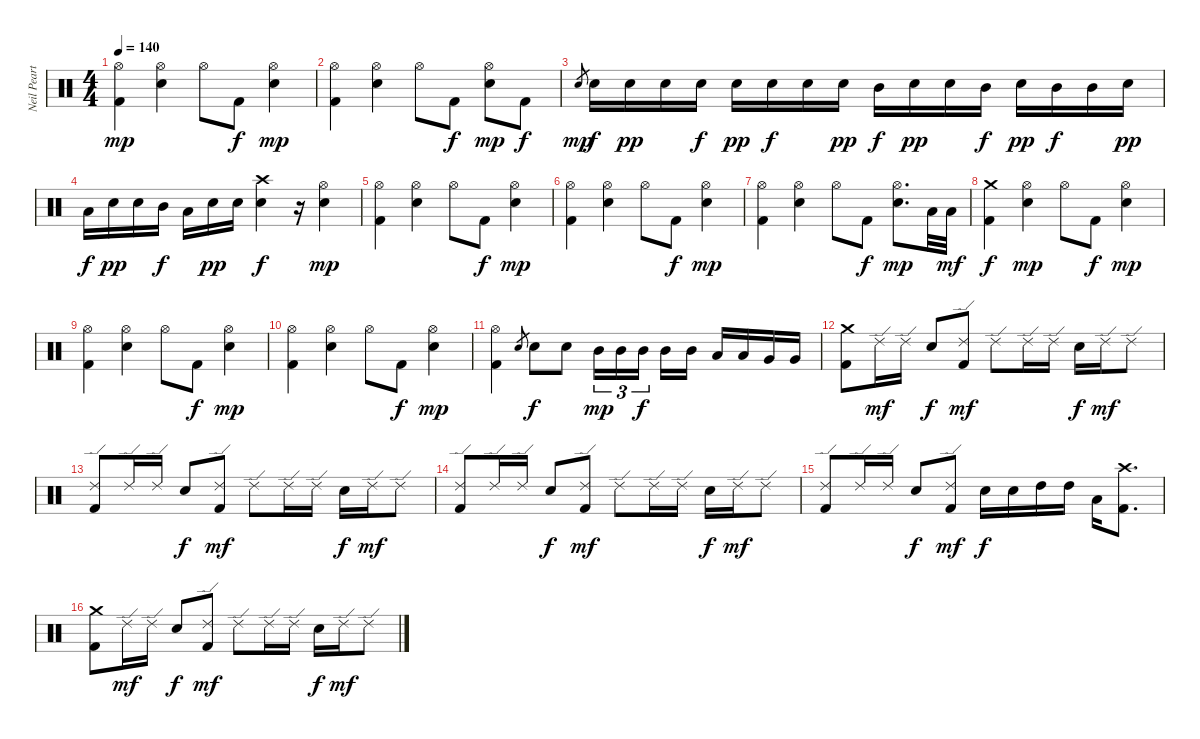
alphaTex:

\track ("Neil Peart, Percusión" "Neil Peart") {instrument percussion}
\staff {score}
\articulation defaults
\ts (4 4)
\tempo 140
\clef neutral
\ks c
("Hi-Hat (open)" "Kick (hit) 2").4{dy mp} ("Hi-Hat (open)" "Electric Snare (hit)").4 "Hi-Hat (open)".8 "Kick (hit) 2".8{dy f} ("Hi-Hat (open)" "Electric Snare (hit)").4{dy mp} |
("Hi-Hat (open)" "Kick (hit) 2").4 ("Hi-Hat (open)" "Electric Snare (hit)").4 "Hi-Hat (open)".8 "Kick (hit) 2".8{dy f} ("Hi-Hat (open)" "Electric Snare (hit)").8{dy mp} "Kick (hit) 2".8{dy f} |
"Electric Snare (hit)".8{gr dy mp} "Electric Snare (hit)".16{dy f} "Electric Snare (hit)".16{dy pp} "Electric Snare (hit)".16 "Electric Snare (hit)".16{dy f} "Electric Snare (hit)".16{dy pp} "Electric Snare (hit)".16{dy f} "Electric Snare (hit)".16 "Electric Snare (hit)".16{dy pp} "Mid Tom (hit)".16{dy f} "Electric Snare (hit)".16{dy pp} "Electric Snare (hit)".16 "Mid Tom (hit)".16{dy f} "Electric Snare (hit)".16{dy pp} "Mid Tom (hit)".16{dy f} "Mid Tom (hit)".16 "Electric Snare (hit)".16{dy pp} |
"Low Tom (hit)".16{dy f} "Electric Snare (hit)".16{dy pp} "Electric Snare (hit)".16 "Mid Tom (hit)".16{dy f} "Low Tom (hit)".16 "Electric Snare (hit)".16{dy pp} "Electric Snare (hit)".16 ("Crash high (hit)" "Electric Snare (hit)").4{dy f} r.16 ("Hi-Hat (open)" "Electric Snare (hit)").4{dy mp} |
("Hi-Hat (open)" "Kick (hit) 2").4 ("Hi-Hat (open)" "Electric Snare (hit)").4 "Hi-Hat (open)".8 "Kick (hit) 2".8{dy f} ("Hi-Hat (open)" "Electric Snare (hit)").4{dy mp} |
("Hi-Hat (open)" "Kick (hit) 2").4 ("Hi-Hat (open)" "Electric Snare (hit)").4 "Hi-Hat (open)".8 "Kick (hit) 2".8{dy f} ("Hi-Hat (open)" "Electric Snare (hit)").4{dy mp} |
("Hi-Hat (open)" "Kick (hit) 2").4 ("Hi-Hat (open)" "Electric Snare (hit)").4 "Hi-Hat (open)".8 "Kick (hit) 2".8{dy f} ("Hi-Hat (open)" "Electric Snare (hit)").8{d dy mp} "Low Tom (hit)".32 "Low Tom (hit)".32{dy mf} |
("Crash medium (hit)" "Kick (hit) 2").4{dy f} ("Hi-Hat (open)" "Electric Snare (hit)").4{dy mp} "Hi-Hat (open)".8 "Kick (hit) 2".8{dy f} ("Hi-Hat (open)" "Electric Snare (hit)").4{dy mp} |
("Hi-Hat (open)" "Kick (hit) 2").4 ("Hi-Hat (open)" "Electric Snare (hit)").4 "Hi-Hat (open)".8 "Kick (hit) 2".8{dy f} ("Hi-Hat (open)" "Electric Snare (hit)").4{dy mp} |
("Hi-Hat (open)" "Kick (hit) 2").4 ("Hi-Hat (open)" "Electric Snare (hit)").4 "Hi-Hat (open)".8 "Kick (hit) 2".8{dy f} ("Hi-Hat (open)" "Electric Snare (hit)").4{dy mp} |
("Hi-Hat (open)" "Kick (hit) 2").4 "Electric Snare (hit)".8{gr} "Electric Snare (hit)".8{dy f} "Electric Snare (hit)".8 "Mid Tom (hit)".16{tu (3 2) dy mp} "Mid Tom (hit)".16{tu (3 2)} "Mid Tom (hit)".16{tu (3 2) dy f} "Mid Tom (hit)".16 "Mid Tom (hit)".16 "Low Tom (hit)".16 "Low Tom (hit)".16 "Very Low Tom (hit)".16 "Very Low Tom (hit)".16 |
("Crash medium (hit)" "Kick (hit) 2").8 "Ride (edge) 2".16{dy mf} "Ride (edge) 2".16 "Electric Snare (hit)".8{dy f} ("Ride (edge) 2" "Kick (hit) 2").8{dy mf} "Ride (edge) 2".8 "Ride (edge) 2".16 "Ride (edge) 2".16 "Electric Snare (hit)".16{dy f} "Ride (edge) 2".16{dy mf} "Ride (edge) 2".8 |
("Ride (edge) 2" "Kick (hit) 2").8 "Ride (edge) 2".16 "Ride (edge) 2".16 "Electric Snare (hit)".8{dy f} ("Ride (edge) 2" "Kick (hit) 2").8{dy mf} "Ride (edge) 2".8 "Ride (edge) 2".16 "Ride (edge) 2".16 "Electric Snare (hit)".16{dy f} "Ride (edge) 2".16{dy mf} "Ride (edge) 2".8 |
("Ride (edge) 2" "Kick (hit) 2").8 "Ride (edge) 2".16 "Ride (edge) 2".16 "Electric Snare (hit)".8{dy f} ("Ride (edge) 2" "Kick (hit) 2").8{dy mf} "Ride (edge) 2".8 "Ride (edge) 2".16 "Ride (edge) 2".16 "Electric Snare (hit)".16{dy f} "Ride (edge) 2".16{dy mf} "Ride (edge) 2".8 |
("Ride (edge) 2" "Kick (hit) 2").8 "Ride (edge) 2".16 "Ride (edge) 2".16 "Electric Snare (hit)".8{dy f} ("Ride (edge) 2" "Kick (hit) 2").8{dy mf} "Electric Snare (hit)".16{dy f} "Electric Snare (hit)".16 "High Tom (hit)".16 "High Tom (hit)".16 "Low Tom (hit)".16 ("Crash high (hit)" "Kick (hit) 2").8{d} |
("Crash medium (hit)" "Kick (hit) 2").8 "Ride (edge) 2".16{dy mf} "Ride (edge) 2".16 "Electric Snare (hit)".8{dy f} ("Ride (edge) 2" "Kick (hit) 2").8{dy mf} "Ride (edge) 2".8 "Ride (edge) 2".16 "Ride (edge) 2".16 "Electric Snare (hit)".16{dy f} "Ride (edge) 2".16{dy mf} "Ride (edge) 2".8
